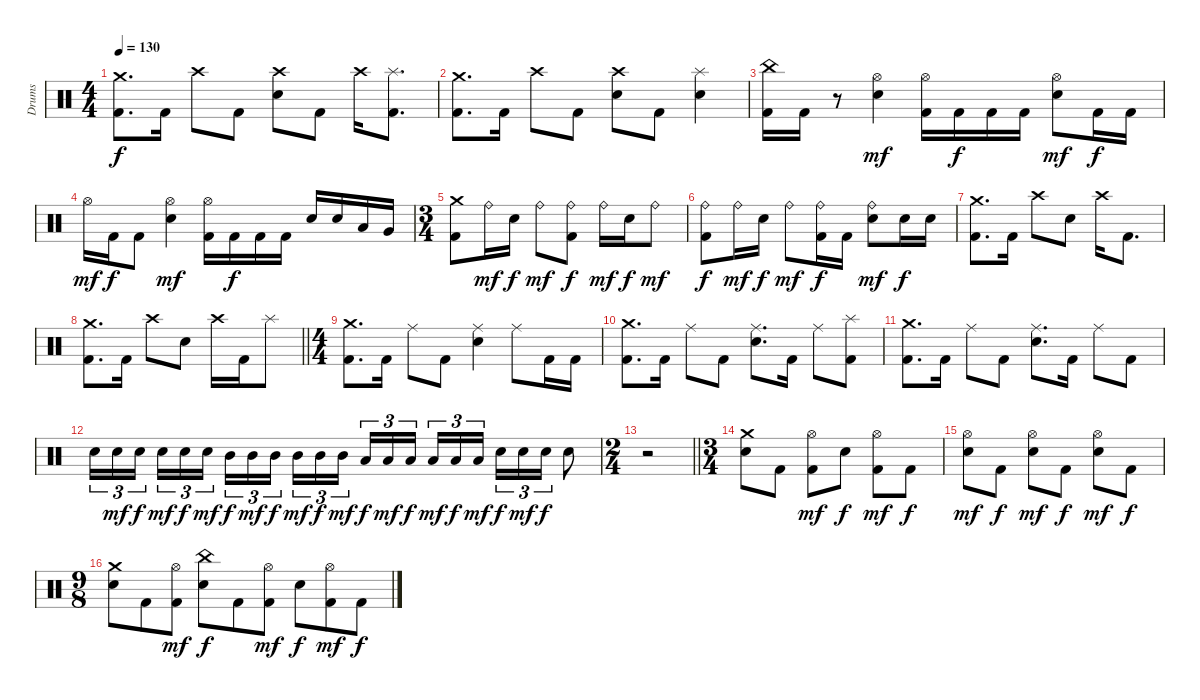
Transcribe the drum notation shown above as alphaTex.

\track ("Drums" "Drums") {instrument percussion}
\staff {score}
\articulation defaults
\ts (4 4)
\tempo 130
\clef neutral
\ks c
("Kick (hit) 2" "Crash medium (hit)").8{d dy f} "Kick (hit) 2".16 "Crash high (hit)".8 "Kick (hit) 2".8 ("Crash high (hit)" "Electric Snare (hit)").8 "Kick (hit) 2".8 "Crash high (hit)".16 ("Kick (hit) 2" "Splash (hit)").8{d} |
("Kick (hit) 2" "Crash medium (hit)").8{d} "Kick (hit) 2".16 "Crash high (hit)".8 "Kick (hit) 2".8 ("Crash high (hit)" "Electric Snare (hit)").8 "Kick (hit) 2".8 ("Splash (hit)" "Electric Snare (hit)").4 |
("Kick (hit) 2" "China (hit)").16 "Kick (hit) 2".16 r.8 ("Hi-Hat (open)" "Electric Snare (hit)").4{dy mf} ("Kick (hit) 2" "Hi-Hat (open)").16 "Kick (hit) 2".16{dy f} "Kick (hit) 2".16 "Kick (hit) 2".16 ("Hi-Hat (open)" "Electric Snare (hit)").8{dy mf} "Kick (hit) 2".16{dy f} "Kick (hit) 2".16 |
"Hi-Hat (open)".16{dy mf} "Kick (hit) 2".16{dy f} "Kick (hit) 2".8 ("Hi-Hat (open)" "Electric Snare (hit)").4{dy mf} ("Kick (hit) 2" "Hi-Hat (open)").16 "Kick (hit) 2".16{dy f} "Kick (hit) 2".16 "Kick (hit) 2".16 "Electric Snare (hit)".16 "Electric Snare (hit)".16 "Low Tom (hit)".16 "Very Low Tom (hit)".16 |
\ts (3 4)
("Kick (hit) 2" "Crash medium (hit)").8 "Ride (bell)".16{dy mf} "Electric Snare (hit)".16{dy f} "Ride (bell)".8{dy mf} ("Kick (hit) 2" "Ride (bell)").8{dy f} "Ride (bell)".16{dy mf} "Electric Snare (hit)".16{dy f} "Ride (bell)".8{dy mf} |
("Kick (hit) 2" "Ride (bell)").8{dy f} "Ride (bell)".16{dy mf} "Electric Snare (hit)".16{dy f} "Ride (bell)".8{dy mf} ("Kick (hit) 2" "Ride (bell)").16{dy f} "Kick (hit) 2".16 ("Ride (bell)" "Electric Snare (hit)").8{dy mf} "Electric Snare (hit)".16{dy f} "Electric Snare (hit)".16 |
("Kick (hit) 2" "Crash medium (hit)").8{d} "Kick (hit) 2".16 "Crash high (hit)".8 "Electric Snare (hit)".8 "Crash high (hit)".16 "Kick (hit) 2".8{d} |
\barLineRight lightlight
("Kick (hit) 2" "Crash medium (hit)").8{d} "Kick (hit) 2".16 "Crash high (hit)".8 "Electric Snare (hit)".8 "Crash high (hit)".16 "Kick (hit) 2".16 "Splash (hit)".8 |
\ts (4 4)
("Kick (hit) 2" "Crash medium (hit)").8{d} "Kick (hit) 2".16 "Ride (middle)".8 "Kick (hit) 2".8 ("Ride (middle)" "Electric Snare (hit)").4 "Ride (middle)".8 "Kick (hit) 2".16 "Kick (hit) 2".16 |
("Kick (hit) 2" "Crash medium (hit)").8{d} "Kick (hit) 2".16 "Ride (middle)".8 "Kick (hit) 2".8 ("Ride (middle)" "Electric Snare (hit)").8{d} "Kick (hit) 2".16 "Ride (middle)".8 ("Kick (hit) 2" "Splash (hit)").8 |
("Kick (hit) 2" "Crash medium (hit)").8{d} "Kick (hit) 2".16 "Ride (middle)".8 "Kick (hit) 2".8 ("Ride (middle)" "Electric Snare (hit)").8{d} "Kick (hit) 2".16 "Ride (middle)".8 "Kick (hit) 2".8 |
"Electric Snare (hit)".16{tu (3 2)} "Electric Snare (hit)".16{tu (3 2) dy mf} "Electric Snare (hit)".16{tu (3 2) dy f beam splitsecondary} "Electric Snare (hit)".16{tu (3 2) dy mf} "Electric Snare (hit)".16{tu (3 2) dy f} "Electric Snare (hit)".16{tu (3 2) dy mf} "Mid Tom (hit)".16{tu (3 2) dy f} "Mid Tom (hit)".16{tu (3 2) dy mf} "Mid Tom (hit)".16{tu (3 2) dy f beam splitsecondary} "Mid Tom (hit)".16{tu (3 2) dy mf} "Mid Tom (hit)".16{tu (3 2) dy f} "Mid Tom (hit)".16{tu (3 2) dy mf} "Low Tom (hit)".16{tu (3 2) dy f} "Low Tom (hit)".16{tu (3 2) dy mf} "Low Tom (hit)".16{tu (3 2) dy f beam splitsecondary} "Low Tom (hit)".16{tu (3 2) dy mf} "Low Tom (hit)".16{tu (3 2) dy f} "Low Tom (hit)".16{tu (3 2) dy mf} "Electric Snare (hit)".16{tu (3 2) dy f} "Electric Snare (hit)".16{tu (3 2) dy mf} "Electric Snare (hit)".16{tu (3 2) dy f} "Electric Snare (hit)".8 |
\ts (2 4)
\barLineRight lightlight
r.2 |
\ts (3 4)
("Crash medium (hit)" "Electric Snare (hit)").8 "Kick (hit) 2".8 ("Kick (hit) 2" "Hi-Hat (open)").8{dy mf} "Electric Snare (hit)".8{dy f} ("Kick (hit) 2" "Hi-Hat (open)").8{dy mf} "Kick (hit) 2".8{dy f} |
("Hi-Hat (open)" "Electric Snare (hit)").8{dy mf} "Kick (hit) 2".8{dy f} ("Hi-Hat (open)" "Electric Snare (hit)").8{dy mf} "Kick (hit) 2".8{dy f} ("Hi-Hat (open)" "Electric Snare (hit)").8{dy mf} "Kick (hit) 2".8{dy f} |
\ts (9 8)
("Crash medium (hit)" "Electric Snare (hit)").8 "Kick (hit) 2".8 ("Kick (hit) 2" "Hi-Hat (open)").8{dy mf} ("China (hit)" "Electric Snare (hit)").8{dy f} "Kick (hit) 2".8 ("Kick (hit) 2" "Hi-Hat (open)").8{dy mf} "Electric Snare (hit)".8{dy f} ("Kick (hit) 2" "Hi-Hat (open)").8{dy mf} "Kick (hit) 2".8{dy f}
